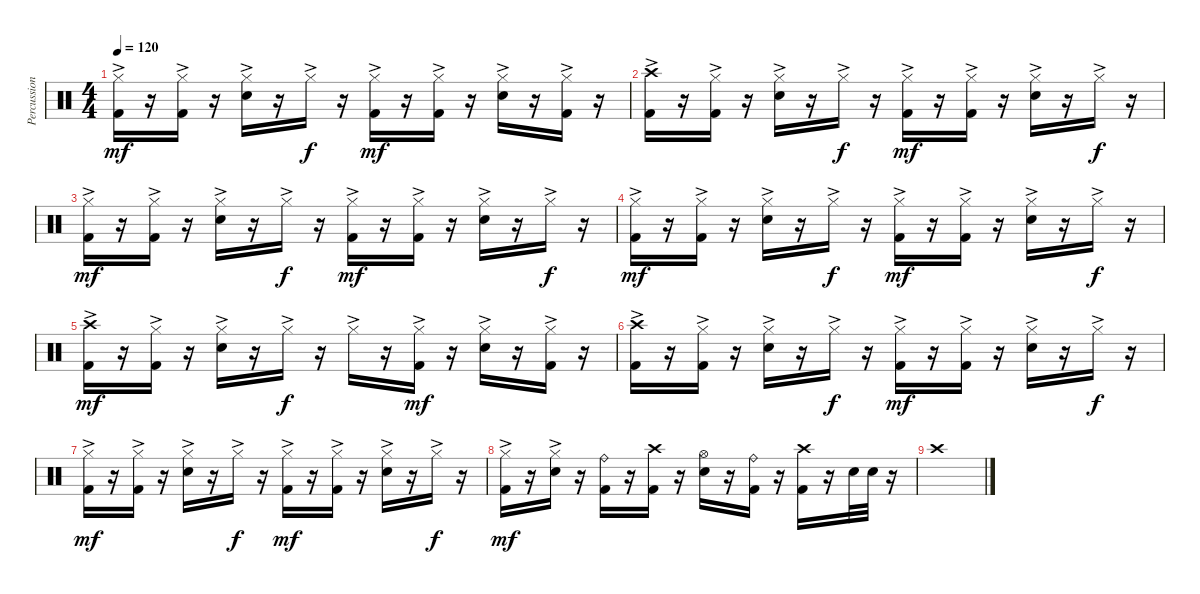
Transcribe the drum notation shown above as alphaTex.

\track ("Percussion" "Percussion") {instrument percussion}
\staff {score}
\articulation defaults
\ts (4 4)
\tempo 120
\clef neutral
\ks c
("Hi-Hat (closed)"{ac} "Kick (hit) 2").16{dy mf} r.16 ("Hi-Hat (closed)"{ac} "Kick (hit) 2").16 r.16 ("Hi-Hat (closed)"{ac} "Electric Snare (hit)").16 r.16 "Hi-Hat (closed)"{ac}.16{dy f} r.16 ("Hi-Hat (closed)"{ac} "Kick (hit) 2").16{dy mf} r.16 ("Hi-Hat (closed)"{ac} "Kick (hit) 2").16 r.16 ("Hi-Hat (closed)"{ac} "Electric Snare (hit)").16 r.16 ("Hi-Hat (closed)"{ac} "Kick (hit) 2").16 r.16 |
("Crash high (hit)"{ac} "Kick (hit) 2").16 r.16 ("Hi-Hat (closed)"{ac} "Kick (hit) 2").16 r.16 ("Hi-Hat (closed)"{ac} "Electric Snare (hit)").16 r.16 "Hi-Hat (closed)"{ac}.16{dy f} r.16 ("Hi-Hat (closed)"{ac} "Kick (hit) 2").16{dy mf} r.16 ("Hi-Hat (closed)"{ac} "Kick (hit) 2").16 r.16 ("Hi-Hat (closed)"{ac} "Electric Snare (hit)").16 r.16 "Hi-Hat (closed)"{ac}.16{dy f} r.16 |
("Hi-Hat (closed)"{ac} "Kick (hit) 2").16{dy mf} r.16 ("Hi-Hat (closed)"{ac} "Kick (hit) 2").16 r.16 ("Hi-Hat (closed)"{ac} "Electric Snare (hit)").16 r.16 "Hi-Hat (closed)"{ac}.16{dy f} r.16 ("Hi-Hat (closed)"{ac} "Kick (hit) 2").16{dy mf} r.16 ("Hi-Hat (closed)"{ac} "Kick (hit) 2").16 r.16 ("Hi-Hat (closed)"{ac} "Electric Snare (hit)").16 r.16 "Hi-Hat (closed)"{ac}.16{dy f} r.16 |
("Hi-Hat (closed)"{ac} "Kick (hit) 2").16{dy mf} r.16 ("Hi-Hat (closed)"{ac} "Kick (hit) 2").16 r.16 ("Hi-Hat (closed)"{ac} "Electric Snare (hit)").16 r.16 "Hi-Hat (closed)"{ac}.16{dy f} r.16 ("Hi-Hat (closed)"{ac} "Kick (hit) 2").16{dy mf} r.16 ("Hi-Hat (closed)"{ac} "Kick (hit) 2").16 r.16 ("Hi-Hat (closed)"{ac} "Electric Snare (hit)").16 r.16 "Hi-Hat (closed)"{ac}.16{dy f} r.16 |
("Crash high (hit)"{ac} "Kick (hit) 2").16{dy mf} r.16 ("Hi-Hat (closed)"{ac} "Kick (hit) 2").16 r.16 ("Hi-Hat (closed)"{ac} "Electric Snare (hit)").16 r.16 "Hi-Hat (closed)"{ac}.16{dy f} r.16 "Hi-Hat (closed)"{ac}.16 r.16 ("Hi-Hat (closed)"{ac} "Kick (hit) 2").16{dy mf} r.16 ("Hi-Hat (closed)"{ac} "Electric Snare (hit)").16 r.16 ("Hi-Hat (closed)"{ac} "Kick (hit) 2").16 r.16 |
("Crash high (hit)"{ac} "Kick (hit) 2").16 r.16 ("Hi-Hat (closed)"{ac} "Kick (hit) 2").16 r.16 ("Hi-Hat (closed)"{ac} "Electric Snare (hit)").16 r.16 "Hi-Hat (closed)"{ac}.16{dy f} r.16 ("Hi-Hat (closed)"{ac} "Kick (hit) 2").16{dy mf} r.16 ("Hi-Hat (closed)"{ac} "Kick (hit) 2").16 r.16 ("Hi-Hat (closed)"{ac} "Electric Snare (hit)").16 r.16 "Hi-Hat (closed)"{ac}.16{dy f} r.16 |
("Hi-Hat (closed)"{ac} "Kick (hit) 2").16{dy mf} r.16 ("Hi-Hat (closed)"{ac} "Kick (hit) 2").16 r.16 ("Hi-Hat (closed)"{ac} "Electric Snare (hit)").16 r.16 "Hi-Hat (closed)"{ac}.16{dy f} r.16 ("Hi-Hat (closed)"{ac} "Kick (hit) 2").16{dy mf} r.16 ("Hi-Hat (closed)"{ac} "Kick (hit) 2").16 r.16 ("Hi-Hat (closed)"{ac} "Electric Snare (hit)").16 r.16 "Hi-Hat (closed)"{ac}.16{dy f} r.16 |
("Hi-Hat (closed)"{ac} "Kick (hit) 2").16{dy mf} r.16 ("Hi-Hat (closed)"{ac} "Electric Snare (hit)").16 r.16 ("Ride (bell)" "Kick (hit) 2").16 r.16 ("Crash high (hit)" "Kick (hit) 2").16 r.16 ("Hi-Hat (open)" "Electric Snare (hit)").16 r.16 ("Ride (bell)" "Kick (hit) 2").16 r.16 ("Crash high (hit)" "Kick (hit) 2").16 r.16 "Electric Snare (hit)".32 "Electric Snare (hit)".32 r.16 |
"Crash high (hit)".1
